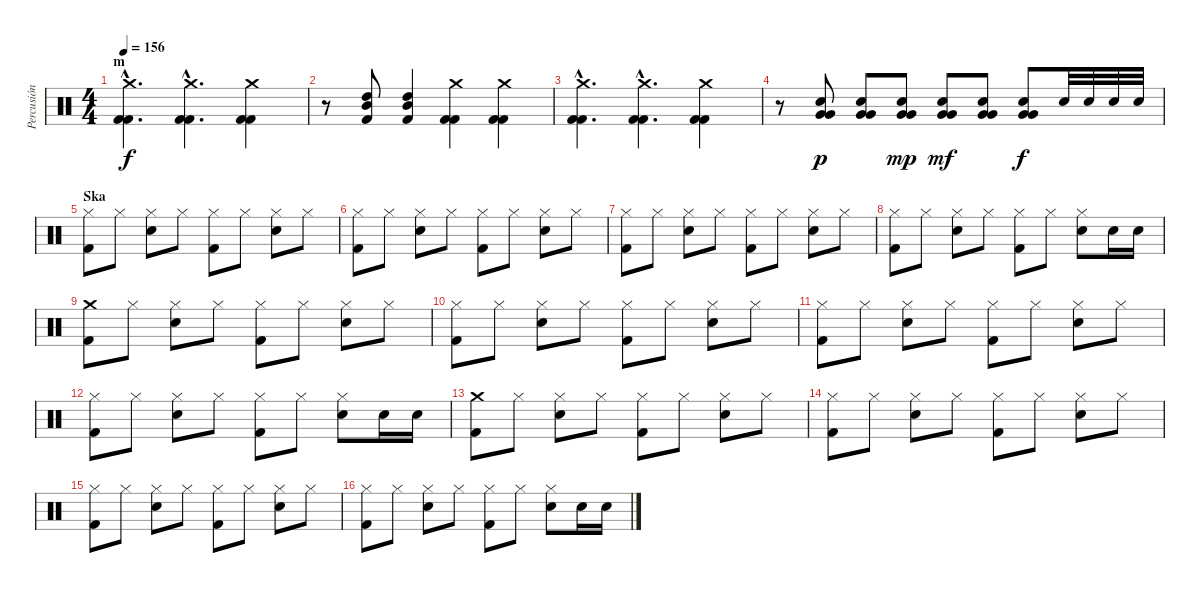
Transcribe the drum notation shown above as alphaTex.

\track ("Percusión" "Percusión") {instrument percussion}
\staff {score}
\articulation defaults
\ts (4 4)
\section ("" "m")
\tempo 156
\clef neutral
\ks c
("Crash medium (hit)"{hac} "Kick (hit) 2"{hac} "Kick (hit) 2"{hac}).4{d dy f} ("Crash medium (hit)"{hac} "Kick (hit) 2"{hac} "Kick (hit) 2"{hac}).4{d} ("Crash medium (hit)" "Kick (hit) 2" "Kick (hit) 2").4 |
r.8 ("Mid Tom (hit)" "High Tom (hit)" "Kick (hit) 2").8 ("Mid Tom (hit)" "High Tom (hit)" "Kick (hit) 2").4 ("Crash medium (hit)" "Kick (hit) 2" "Kick (hit) 2").4 ("Crash medium (hit)" "Kick (hit) 2" "Kick (hit) 2").4 |
("Crash medium (hit)"{hac} "Kick (hit) 2"{hac} "Kick (hit) 2"{hac}).4{d} ("Crash medium (hit)"{hac} "Kick (hit) 2"{hac} "Kick (hit) 2"{hac}).4{d} ("Crash medium (hit)" "Kick (hit) 2" "Kick (hit) 2").4 |
r.8 ("Electric Snare (hit)" "Very Low Tom (hit)" "Very Low Tom (hit)").8{dy p} ("Electric Snare (hit)" "Very Low Tom (hit)" "Very Low Tom (hit)").8 ("Electric Snare (hit)" "Very Low Tom (hit)" "Very Low Tom (hit)").8{dy mp} ("Electric Snare (hit)" "Very Low Tom (hit)" "Very Low Tom (hit)").8{dy mf} ("Electric Snare (hit)" "Very Low Tom (hit)" "Very Low Tom (hit)").8 ("Electric Snare (hit)" "Very Low Tom (hit)" "Very Low Tom (hit)").8{dy f} "Electric Snare (hit)".32 "Electric Snare (hit)".32 "Electric Snare (hit)".32 "Electric Snare (hit)".32 |
\section ("" "Ska")
("Hi-Hat (closed)" "Kick (hit) 2").8 "Hi-Hat (closed)".8 ("Hi-Hat (closed)" "Electric Snare (hit)").8 "Hi-Hat (closed)".8 ("Hi-Hat (closed)" "Kick (hit) 2").8 "Hi-Hat (closed)".8 ("Hi-Hat (closed)" "Electric Snare (hit)").8 "Hi-Hat (closed)".8 |
("Hi-Hat (closed)" "Kick (hit) 2").8 "Hi-Hat (closed)".8 ("Hi-Hat (closed)" "Electric Snare (hit)").8 "Hi-Hat (closed)".8 ("Hi-Hat (closed)" "Kick (hit) 2").8 "Hi-Hat (closed)".8 ("Hi-Hat (closed)" "Electric Snare (hit)").8 "Hi-Hat (closed)".8 |
("Hi-Hat (closed)" "Kick (hit) 2").8 "Hi-Hat (closed)".8 ("Hi-Hat (closed)" "Electric Snare (hit)").8 "Hi-Hat (closed)".8 ("Hi-Hat (closed)" "Kick (hit) 2").8 "Hi-Hat (closed)".8 ("Hi-Hat (closed)" "Electric Snare (hit)").8 "Hi-Hat (closed)".8 |
("Hi-Hat (closed)" "Kick (hit) 2").8 "Hi-Hat (closed)".8 ("Hi-Hat (closed)" "Electric Snare (hit)").8 "Hi-Hat (closed)".8 ("Hi-Hat (closed)" "Kick (hit) 2").8 "Hi-Hat (closed)".8 ("Hi-Hat (closed)" "Electric Snare (hit)").8 "Electric Snare (hit)".16 "Electric Snare (hit)".16 |
("Crash medium (hit)" "Kick (hit) 2").8 "Hi-Hat (closed)".8 ("Hi-Hat (closed)" "Electric Snare (hit)").8 "Hi-Hat (closed)".8 ("Hi-Hat (closed)" "Kick (hit) 2").8 "Hi-Hat (closed)".8 ("Hi-Hat (closed)" "Electric Snare (hit)").8 "Hi-Hat (closed)".8 |
("Hi-Hat (closed)" "Kick (hit) 2").8 "Hi-Hat (closed)".8 ("Hi-Hat (closed)" "Electric Snare (hit)").8 "Hi-Hat (closed)".8 ("Hi-Hat (closed)" "Kick (hit) 2").8 "Hi-Hat (closed)".8 ("Hi-Hat (closed)" "Electric Snare (hit)").8 "Hi-Hat (closed)".8 |
("Hi-Hat (closed)" "Kick (hit) 2").8 "Hi-Hat (closed)".8 ("Hi-Hat (closed)" "Electric Snare (hit)").8 "Hi-Hat (closed)".8 ("Hi-Hat (closed)" "Kick (hit) 2").8 "Hi-Hat (closed)".8 ("Hi-Hat (closed)" "Electric Snare (hit)").8 "Hi-Hat (closed)".8 |
("Hi-Hat (closed)" "Kick (hit) 2").8 "Hi-Hat (closed)".8 ("Hi-Hat (closed)" "Electric Snare (hit)").8 "Hi-Hat (closed)".8 ("Hi-Hat (closed)" "Kick (hit) 2").8 "Hi-Hat (closed)".8 ("Hi-Hat (closed)" "Electric Snare (hit)").8 "Electric Snare (hit)".16 "Electric Snare (hit)".16 |
("Crash medium (hit)" "Kick (hit) 2").8 "Hi-Hat (closed)".8 ("Hi-Hat (closed)" "Electric Snare (hit)").8 "Hi-Hat (closed)".8 ("Hi-Hat (closed)" "Kick (hit) 2").8 "Hi-Hat (closed)".8 ("Hi-Hat (closed)" "Electric Snare (hit)").8 "Hi-Hat (closed)".8 |
("Hi-Hat (closed)" "Kick (hit) 2").8 "Hi-Hat (closed)".8 ("Hi-Hat (closed)" "Electric Snare (hit)").8 "Hi-Hat (closed)".8 ("Hi-Hat (closed)" "Kick (hit) 2").8 "Hi-Hat (closed)".8 ("Hi-Hat (closed)" "Electric Snare (hit)").8 "Hi-Hat (closed)".8 |
("Hi-Hat (closed)" "Kick (hit) 2").8 "Hi-Hat (closed)".8 ("Hi-Hat (closed)" "Electric Snare (hit)").8 "Hi-Hat (closed)".8 ("Hi-Hat (closed)" "Kick (hit) 2").8 "Hi-Hat (closed)".8 ("Hi-Hat (closed)" "Electric Snare (hit)").8 "Hi-Hat (closed)".8 |
("Hi-Hat (closed)" "Kick (hit) 2").8 "Hi-Hat (closed)".8 ("Hi-Hat (closed)" "Electric Snare (hit)").8 "Hi-Hat (closed)".8 ("Hi-Hat (closed)" "Kick (hit) 2").8 "Hi-Hat (closed)".8 ("Hi-Hat (closed)" "Electric Snare (hit)").8 "Electric Snare (hit)".16 "Electric Snare (hit)".16
